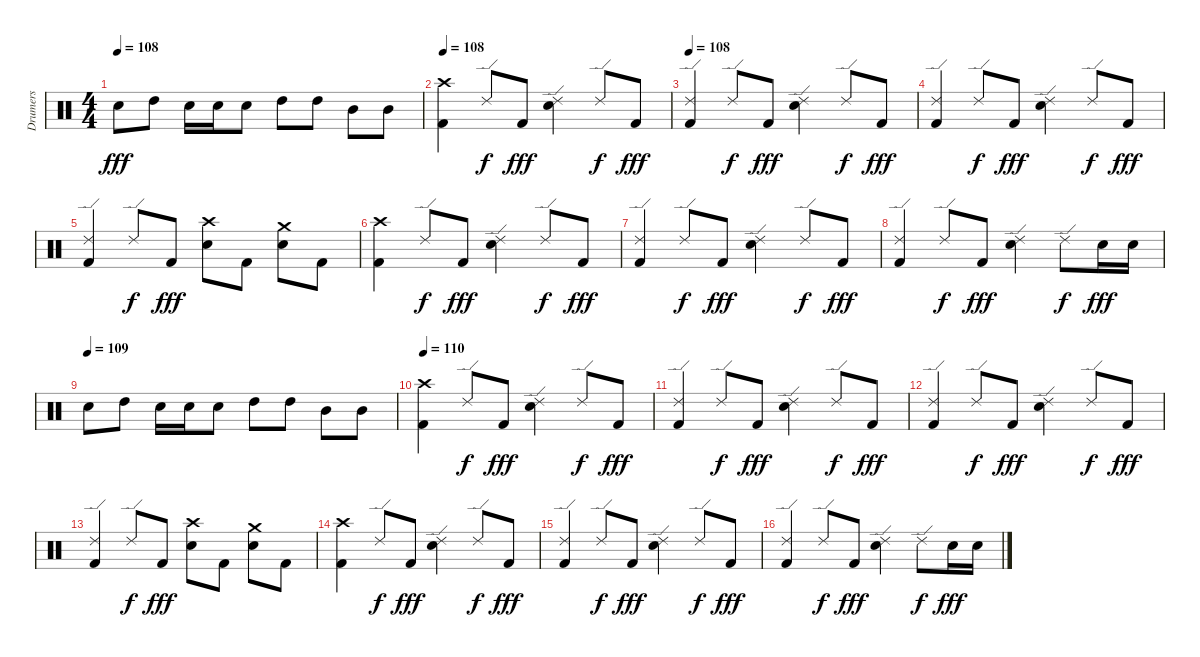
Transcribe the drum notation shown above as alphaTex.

\track ("Drumers" "Drumers") {instrument percussion}
\staff {score}
\articulation defaults
\ts (4 4)
\tempo 108
\clef neutral
\ks c "Electric Snare (hit)".8{dy fff} "High Tom (hit)".8 "Electric Snare (hit)".16 "Electric Snare (hit)".16 "Electric Snare (hit)".8 "High Tom (hit)".8 "High Tom (hit)".8 "Mid Tom (hit)".8 "Mid Tom (hit)".8
|
\tempo 108
("Crash high (hit)" "Kick (hit) 2").4 "Ride (edge) 2".8{dy f} "Kick (hit) 2".8{dy fff} ("Ride (edge) 2" "Electric Snare (hit)").4 "Ride (edge) 2".8{dy f} "Kick (hit) 2".8{dy fff} |
\tempo 108
("Ride (edge) 2" "Kick (hit) 2").4 "Ride (edge) 2".8{dy f} "Kick (hit) 2".8{dy fff} ("Ride (edge) 2" "Electric Snare (hit)").4 "Ride (edge) 2".8{dy f} "Kick (hit) 2".8{dy fff} |
("Ride (edge) 2" "Kick (hit) 2").4 "Ride (edge) 2".8{dy f} "Kick (hit) 2".8{dy fff} ("Ride (edge) 2" "Electric Snare (hit)").4 "Ride (edge) 2".8{dy f} "Kick (hit) 2".8{dy fff} |
("Ride (edge) 2" "Kick (hit) 2").4 "Ride (edge) 2".8{dy f} "Kick (hit) 2".8{dy fff} ("Crash high (hit)" "Electric Snare (hit)").8 "Kick (hit) 2".8 ("Crash medium (hit)" "Electric Snare (hit)").8 "Kick (hit) 2".8 |
("Crash high (hit)" "Kick (hit) 2").4 "Ride (edge) 2".8{dy f} "Kick (hit) 2".8{dy fff} ("Ride (edge) 2" "Electric Snare (hit)").4 "Ride (edge) 2".8{dy f} "Kick (hit) 2".8{dy fff} |
("Ride (edge) 2" "Kick (hit) 2").4 "Ride (edge) 2".8{dy f} "Kick (hit) 2".8{dy fff} ("Ride (edge) 2" "Electric Snare (hit)").4 "Ride (edge) 2".8{dy f} "Kick (hit) 2".8{dy fff} |
("Ride (edge) 2" "Kick (hit) 2").4 "Ride (edge) 2".8{dy f} "Kick (hit) 2".8{dy fff} ("Ride (edge) 2" "Electric Snare (hit)").4 "Ride (edge) 2".8{dy f} "Electric Snare (hit)".16{dy fff} "Electric Snare (hit)".16 |
\tempo (109)
"Electric Snare (hit)".8 "High Tom (hit)".8 "Electric Snare (hit)".16 "Electric Snare (hit)".16 "Electric Snare (hit)".8 "High Tom (hit)".8 "High Tom (hit)".8 "Mid Tom (hit)".8 "Mid Tom (hit)".8 |
\tempo 110
("Crash high (hit)" "Kick (hit) 2").4 "Ride (edge) 2".8{dy f} "Kick (hit) 2".8{dy fff} ("Ride (edge) 2" "Electric Snare (hit)").4 "Ride (edge) 2".8{dy f} "Kick (hit) 2".8{dy fff} |
("Ride (edge) 2" "Kick (hit) 2").4 "Ride (edge) 2".8{dy f} "Kick (hit) 2".8{dy fff} ("Ride (edge) 2" "Electric Snare (hit)").4 "Ride (edge) 2".8{dy f} "Kick (hit) 2".8{dy fff} |
("Ride (edge) 2" "Kick (hit) 2").4 "Ride (edge) 2".8{dy f} "Kick (hit) 2".8{dy fff} ("Ride (edge) 2" "Electric Snare (hit)").4 "Ride (edge) 2".8{dy f} "Kick (hit) 2".8{dy fff} |
("Ride (edge) 2" "Kick (hit) 2").4 "Ride (edge) 2".8{dy f} "Kick (hit) 2".8{dy fff} ("Crash high (hit)" "Electric Snare (hit)").8 "Kick (hit) 2".8 ("Crash medium (hit)" "Electric Snare (hit)").8 "Kick (hit) 2".8 |
("Crash high (hit)" "Kick (hit) 2").4 "Ride (edge) 2".8{dy f} "Kick (hit) 2".8{dy fff} ("Ride (edge) 2" "Electric Snare (hit)").4 "Ride (edge) 2".8{dy f} "Kick (hit) 2".8{dy fff} |
("Ride (edge) 2" "Kick (hit) 2").4 "Ride (edge) 2".8{dy f} "Kick (hit) 2".8{dy fff} ("Ride (edge) 2" "Electric Snare (hit)").4 "Ride (edge) 2".8{dy f} "Kick (hit) 2".8{dy fff} |
("Ride (edge) 2" "Kick (hit) 2").4 "Ride (edge) 2".8{dy f} "Kick (hit) 2".8{dy fff} ("Ride (edge) 2" "Electric Snare (hit)").4 "Ride (edge) 2".8{dy f} "Electric Snare (hit)".16{dy fff} "Electric Snare (hit)".16
